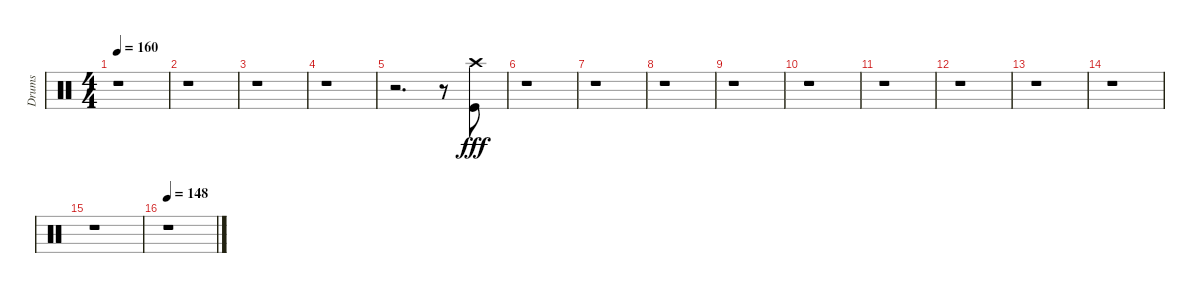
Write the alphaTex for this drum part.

\track ("Drums" "Drums") {instrument percussion}
\staff {score}
\articulation defaults
\ts (4 4)
\tempo 160
\clef neutral
\ks c
r.1{dy fff} |
r.1 |
r.1 |
r.1 |
r.2{d} r.8 ("Crash high (hit)" "Kick (hit)").8 |
r.1 |
r.1 |
r.1 |
r.1 |
r.1 |
r.1 |
r.1 |
r.1 |
r.1 |
r.1 |
\tempo 148
r.1
